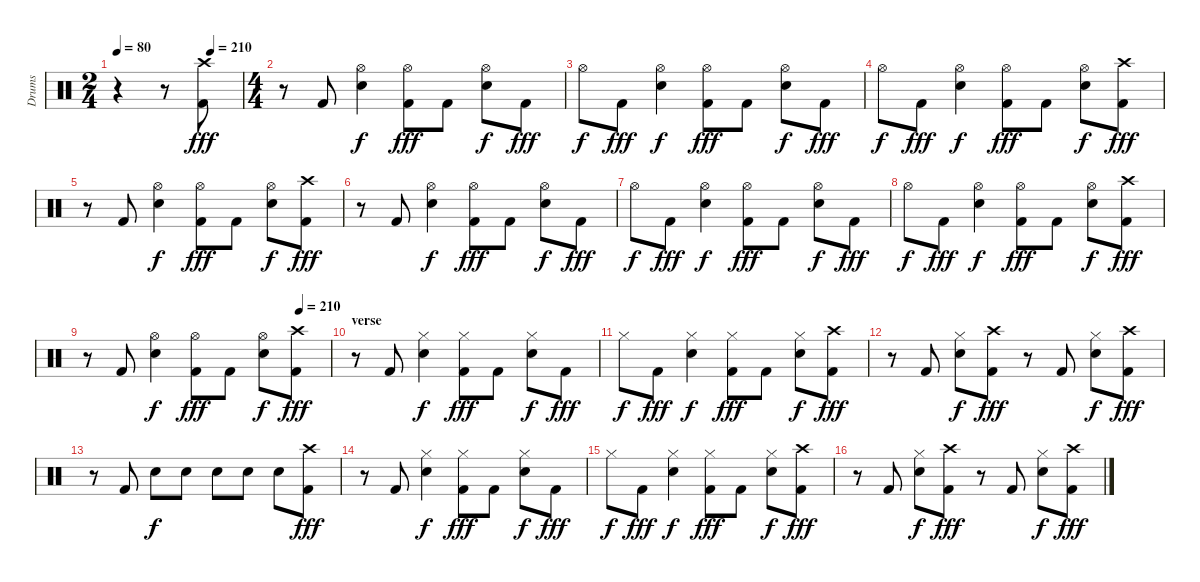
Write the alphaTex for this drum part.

\track ("Drums" "Drums") {instrument percussion}
\staff {score}
\articulation defaults
\ts (2 4)
\tempo 80
\tempo (210 0.75)
\clef neutral
\ks c
r.4{dy fff} r.8 ("Crash high (hit)" "Kick (hit) 2").8 |
\ts (4 4)
r.8 "Kick (hit) 2".8 ("Hi-Hat (open)" "Snare (hit) 2").4{dy f} ("Hi-Hat (open)" "Kick (hit) 2").8{dy fff} "Kick (hit) 2".8 ("Hi-Hat (open)" "Snare (hit) 2").8{dy f} "Kick (hit) 2".8{dy fff} |
"Hi-Hat (open)".8{dy f} "Kick (hit) 2".8{dy fff} ("Hi-Hat (open)" "Snare (hit) 2").4{dy f} ("Hi-Hat (open)" "Kick (hit) 2").8{dy fff} "Kick (hit) 2".8 ("Hi-Hat (open)" "Snare (hit) 2").8{dy f} "Kick (hit) 2".8{dy fff} |
"Hi-Hat (open)".8{dy f} "Kick (hit) 2".8{dy fff} ("Hi-Hat (open)" "Snare (hit) 2").4{dy f} ("Hi-Hat (open)" "Kick (hit) 2").8{dy fff} "Kick (hit) 2".8 ("Hi-Hat (open)" "Snare (hit) 2").8{dy f} ("Crash high (hit)" "Kick (hit) 2").8{dy fff} |
r.8 "Kick (hit) 2".8 ("Hi-Hat (open)" "Snare (hit) 2").4{dy f} ("Hi-Hat (open)" "Kick (hit) 2").8{dy fff} "Kick (hit) 2".8 ("Hi-Hat (open)" "Snare (hit) 2").8{dy f} ("Crash high (hit)" "Kick (hit) 2").8{dy fff} |
r.8 "Kick (hit) 2".8 ("Hi-Hat (open)" "Snare (hit) 2").4{dy f} ("Hi-Hat (open)" "Kick (hit) 2").8{dy fff} "Kick (hit) 2".8 ("Hi-Hat (open)" "Snare (hit) 2").8{dy f} "Kick (hit) 2".8{dy fff} |
"Hi-Hat (open)".8{dy f} "Kick (hit) 2".8{dy fff} ("Hi-Hat (open)" "Snare (hit) 2").4{dy f} ("Hi-Hat (open)" "Kick (hit) 2").8{dy fff} "Kick (hit) 2".8 ("Hi-Hat (open)" "Snare (hit) 2").8{dy f} "Kick (hit) 2".8{dy fff} |
"Hi-Hat (open)".8{dy f} "Kick (hit) 2".8{dy fff} ("Hi-Hat (open)" "Snare (hit) 2").4{dy f} ("Hi-Hat (open)" "Kick (hit) 2").8{dy fff} "Kick (hit) 2".8 ("Hi-Hat (open)" "Snare (hit) 2").8{dy f} ("Crash high (hit)" "Kick (hit) 2").8{dy fff} |
\tempo (210 0.875)
r.8 "Kick (hit) 2".8 ("Hi-Hat (open)" "Snare (hit) 2").4{dy f} ("Hi-Hat (open)" "Kick (hit) 2").8{dy fff} "Kick (hit) 2".8 ("Hi-Hat (open)" "Snare (hit) 2").8{dy f} ("Crash high (hit)" "Kick (hit) 2").8{dy fff} |
\section ("" "verse")
r.8 "Kick (hit) 2".8 ("Hi-Hat (closed)" "Snare (hit) 2").4{dy f} ("Hi-Hat (closed)" "Kick (hit) 2").8{dy fff} "Kick (hit) 2".8 ("Hi-Hat (closed)" "Snare (hit) 2").8{dy f} "Kick (hit) 2".8{dy fff} |
"Hi-Hat (closed)".8{dy f} "Kick (hit) 2".8{dy fff} ("Hi-Hat (closed)" "Snare (hit) 2").4{dy f} ("Hi-Hat (closed)" "Kick (hit) 2").8{dy fff} "Kick (hit) 2".8 ("Hi-Hat (closed)" "Snare (hit) 2").8{dy f} ("Crash high (hit)" "Kick (hit) 2").8{dy fff} |
r.8 "Kick (hit) 2".8 ("Hi-Hat (closed)" "Snare (hit) 2").8{dy f} ("Crash high (hit)" "Kick (hit) 2").8{dy fff} r.8 "Kick (hit) 2".8 ("Hi-Hat (closed)" "Snare (hit) 2").8{dy f} ("Crash high (hit)" "Kick (hit) 2").8{dy fff} |
r.8 "Kick (hit) 2".8 "Snare (hit) 2".8{dy f} "Snare (hit) 2".8 "Snare (hit) 2".8 "Snare (hit) 2".8 "Snare (hit) 2".8 ("Crash high (hit)" "Kick (hit) 2").8{dy fff} |
r.8 "Kick (hit) 2".8 ("Hi-Hat (closed)" "Snare (hit) 2").4{dy f} ("Hi-Hat (closed)" "Kick (hit) 2").8{dy fff} "Kick (hit) 2".8 ("Hi-Hat (closed)" "Snare (hit) 2").8{dy f} "Kick (hit) 2".8{dy fff} |
"Hi-Hat (closed)".8{dy f} "Kick (hit) 2".8{dy fff} ("Hi-Hat (closed)" "Snare (hit) 2").4{dy f} ("Hi-Hat (closed)" "Kick (hit) 2").8{dy fff} "Kick (hit) 2".8 ("Hi-Hat (closed)" "Snare (hit) 2").8{dy f} ("Crash high (hit)" "Kick (hit) 2").8{dy fff} |
r.8 "Kick (hit) 2".8 ("Hi-Hat (closed)" "Snare (hit) 2").8{dy f} ("Crash high (hit)" "Kick (hit) 2").8{dy fff} r.8 "Kick (hit) 2".8 ("Hi-Hat (closed)" "Snare (hit) 2").8{dy f} ("Crash high (hit)" "Kick (hit) 2").8{dy fff}
